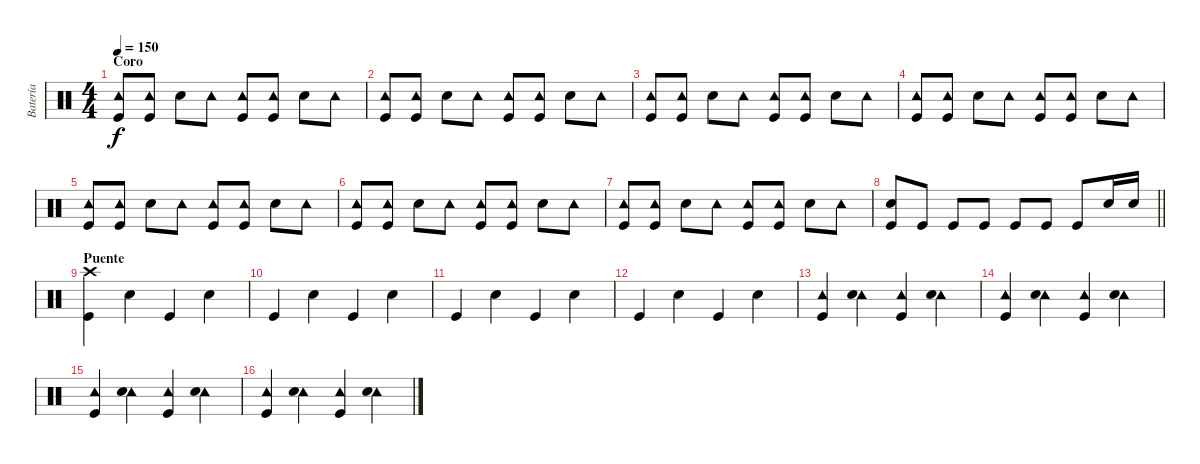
\track ("Batería" "Batería") {instrument percussion}
\staff {score}
\articulation defaults
\ts (4 4)
\section ("" "Coro")
\tempo 150
\clef neutral
\ks c
("Tambourine (hit)" "Kick (hit)").8{dy f} ("Tambourine (hit)" "Kick (hit)").8 "Snare (hit) 2".8 "Tambourine (hit)".8 ("Tambourine (hit)" "Kick (hit)").8 ("Tambourine (hit)" "Kick (hit)").8 "Snare (hit) 2".8 "Tambourine (hit)".8 |
("Tambourine (hit)" "Kick (hit)").8 ("Tambourine (hit)" "Kick (hit)").8 "Snare (hit) 2".8 "Tambourine (hit)".8 ("Tambourine (hit)" "Kick (hit)").8 ("Tambourine (hit)" "Kick (hit)").8 "Snare (hit) 2".8 "Tambourine (hit)".8 |
("Tambourine (hit)" "Kick (hit)").8 ("Tambourine (hit)" "Kick (hit)").8 "Snare (hit) 2".8 "Tambourine (hit)".8 ("Tambourine (hit)" "Kick (hit)").8 ("Tambourine (hit)" "Kick (hit)").8 "Snare (hit) 2".8 "Tambourine (hit)".8 |
("Tambourine (hit)" "Kick (hit)").8 ("Tambourine (hit)" "Kick (hit)").8 "Snare (hit) 2".8 "Tambourine (hit)".8 ("Tambourine (hit)" "Kick (hit)").8 ("Tambourine (hit)" "Kick (hit)").8 "Snare (hit) 2".8 "Tambourine (hit)".8 |
("Tambourine (hit)" "Kick (hit)").8 ("Tambourine (hit)" "Kick (hit)").8 "Snare (hit) 2".8 "Tambourine (hit)".8 ("Tambourine (hit)" "Kick (hit)").8 ("Tambourine (hit)" "Kick (hit)").8 "Snare (hit) 2".8 "Tambourine (hit)".8 |
("Tambourine (hit)" "Kick (hit)").8 ("Tambourine (hit)" "Kick (hit)").8 "Snare (hit) 2".8 "Tambourine (hit)".8 ("Tambourine (hit)" "Kick (hit)").8 ("Tambourine (hit)" "Kick (hit)").8 "Snare (hit) 2".8 "Tambourine (hit)".8 |
("Tambourine (hit)" "Kick (hit)").8 ("Tambourine (hit)" "Kick (hit)").8 "Snare (hit) 2".8 "Tambourine (hit)".8 ("Tambourine (hit)" "Kick (hit)").8 ("Tambourine (hit)" "Kick (hit)").8 "Snare (hit) 2".8 "Tambourine (hit)".8 |
\barLineRight lightlight
("Snare (hit) 2" "Kick (hit)").8 "Kick (hit)".8 "Kick (hit)".8 "Kick (hit)".8 "Kick (hit)".8 "Kick (hit)".8 "Kick (hit)".8 "Snare (hit) 2".16 "Snare (hit) 2".16 |
\section ("" "Puente")
("Crash high (hit)" "Kick (hit)").4 "Snare (hit) 2".4 "Kick (hit)".4 "Snare (hit) 2".4 |
"Kick (hit)".4 "Snare (hit) 2".4 "Kick (hit)".4 "Snare (hit) 2".4 |
"Kick (hit)".4 "Snare (hit) 2".4 "Kick (hit)".4 "Snare (hit) 2".4 |
"Kick (hit)".4 "Snare (hit) 2".4 "Kick (hit)".4 "Snare (hit) 2".4 |
("Tambourine (hit)" "Kick (hit)").4 ("Tambourine (hit)" "Snare (hit) 2").4 ("Tambourine (hit)" "Kick (hit)").4 ("Tambourine (hit)" "Snare (hit) 2").4 |
("Tambourine (hit)" "Kick (hit)").4 ("Tambourine (hit)" "Snare (hit) 2").4 ("Tambourine (hit)" "Kick (hit)").4 ("Tambourine (hit)" "Snare (hit) 2").4 |
("Tambourine (hit)" "Kick (hit)").4 ("Tambourine (hit)" "Snare (hit) 2").4 ("Tambourine (hit)" "Kick (hit)").4 ("Tambourine (hit)" "Snare (hit) 2").4 |
("Tambourine (hit)" "Kick (hit)").4 ("Tambourine (hit)" "Snare (hit) 2").4 ("Tambourine (hit)" "Kick (hit)").4 ("Tambourine (hit)" "Snare (hit) 2").4
